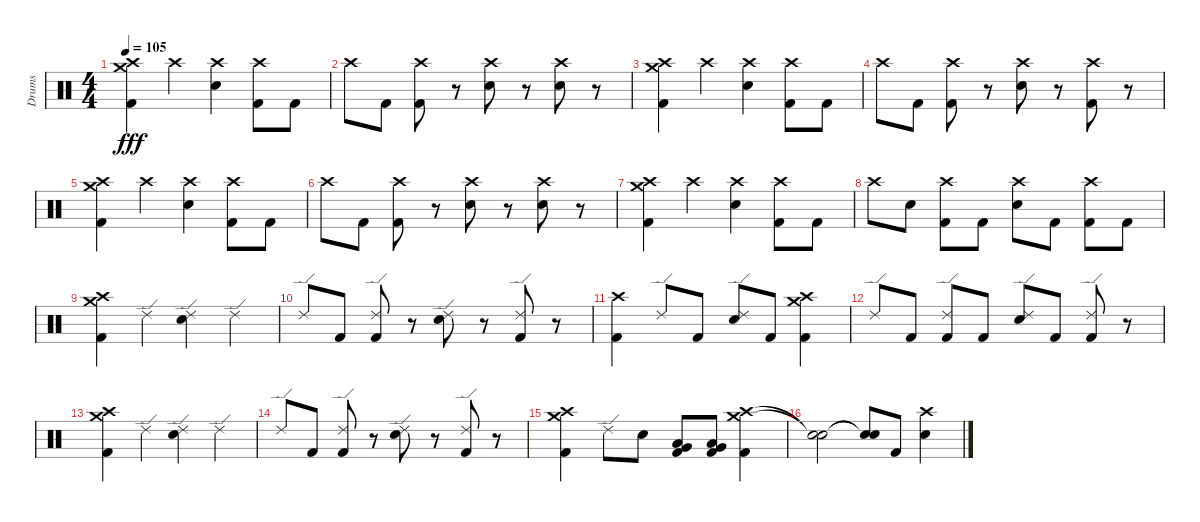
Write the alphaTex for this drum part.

\track ("Drums" "Drums") {instrument percussion}
\staff {score}
\articulation defaults
\ts (4 4)
\tempo 105
\clef neutral
\ks c
("Crash medium (hit)" "Crash high (hit)" "Kick (hit) 2").4{dy fff} "Crash high (hit)".4 ("Crash high (hit)" "Electric Snare (hit)").4 ("Crash high (hit)" "Kick (hit) 2").8 "Kick (hit) 2".8 |
"Crash high (hit)".8 "Kick (hit) 2".8 ("Crash high (hit)" "Kick (hit) 2").8 r.8 ("Crash high (hit)" "Electric Snare (hit)").8 r.8 ("Crash high (hit)" "Electric Snare (hit)").8 r.8 |
("Crash medium (hit)" "Crash high (hit)" "Kick (hit) 2").4 "Crash high (hit)".4 ("Crash high (hit)" "Electric Snare (hit)").4 ("Crash high (hit)" "Kick (hit) 2").8 "Kick (hit) 2".8 |
"Crash high (hit)".8 "Kick (hit) 2".8 ("Crash high (hit)" "Kick (hit) 2").8 r.8 ("Crash high (hit)" "Electric Snare (hit)").8 r.8 ("Crash high (hit)" "Kick (hit) 2").8 r.8 |
("Crash medium (hit)" "Crash high (hit)" "Kick (hit) 2").4 "Crash high (hit)".4 ("Crash high (hit)" "Electric Snare (hit)").4 ("Crash high (hit)" "Kick (hit) 2").8 "Kick (hit) 2".8 |
"Crash high (hit)".8 "Kick (hit) 2".8 ("Crash high (hit)" "Kick (hit) 2").8 r.8 ("Crash high (hit)" "Electric Snare (hit)").8 r.8 ("Crash high (hit)" "Electric Snare (hit)").8 r.8 |
("Crash medium (hit)" "Crash high (hit)" "Kick (hit) 2").4 "Crash high (hit)".4 ("Crash high (hit)" "Electric Snare (hit)").4 ("Crash high (hit)" "Kick (hit) 2").8 "Kick (hit) 2".8 |
"Crash high (hit)".8 "Electric Snare (hit)".8 ("Crash high (hit)" "Kick (hit) 2").8 "Kick (hit) 2".8 ("Crash high (hit)" "Electric Snare (hit)").8 "Kick (hit) 2".8 ("Crash high (hit)" "Kick (hit) 2").8 "Kick (hit) 2".8 |
("Crash high (hit)" "Crash medium (hit)" "Kick (hit) 2").4 "Ride (edge) 2".4 ("Ride (edge) 2" "Electric Snare (hit)").4 "Ride (edge) 2".4 |
"Ride (edge) 2".8 "Kick (hit) 2".8 ("Ride (edge) 2" "Kick (hit) 2").8 r.8 ("Ride (edge) 2" "Electric Snare (hit)").8 r.8 ("Ride (edge) 2" "Kick (hit) 2").8 r.8 |
("Crash high (hit)" "Kick (hit) 2").4 "Ride (edge) 2".8 "Kick (hit) 2".8 ("Ride (edge) 2" "Electric Snare (hit)").8 "Kick (hit) 2".8 ("Crash high (hit)" "Crash medium (hit)" "Kick (hit) 2").4 |
"Ride (edge) 2".8 "Kick (hit) 2".8 ("Ride (edge) 2" "Kick (hit) 2").8 "Kick (hit) 2".8 ("Ride (edge) 2" "Electric Snare (hit)").8 "Kick (hit) 2".8 ("Ride (edge) 2" "Kick (hit) 2").8 r.8 |
("Crash high (hit)" "Crash medium (hit)" "Kick (hit) 2").4 "Ride (edge) 2".4 ("Ride (edge) 2" "Electric Snare (hit)").4 "Ride (edge) 2".4 |
"Ride (edge) 2".8 "Kick (hit) 2".8 ("Ride (edge) 2" "Kick (hit) 2").8 r.8 ("Ride (edge) 2" "Electric Snare (hit)").8 r.8 ("Ride (edge) 2" "Kick (hit) 2").8 r.8 |
("Crash high (hit)" "Crash medium (hit)" "Kick (hit) 2").4 "Ride (edge) 2".8 "Electric Snare (hit)".8 ("Very Low Tom (hit)" "Low Tom (hit)" "Kick (hit) 2").8 ("Very Low Tom (hit)" "Low Tom (hit)" "Kick (hit) 2").8 ("Crash high (hit)" "Crash medium (hit)" "Kick (hit) 2").4 |
("Snare (hit)"{t} "Snare (hit)"{t}).2 ("Snare (hit)"{t} "Snare (hit)"{t}).8 "Kick (hit) 2".8 ("Crash high (hit)" "Electric Snare (hit)").4
